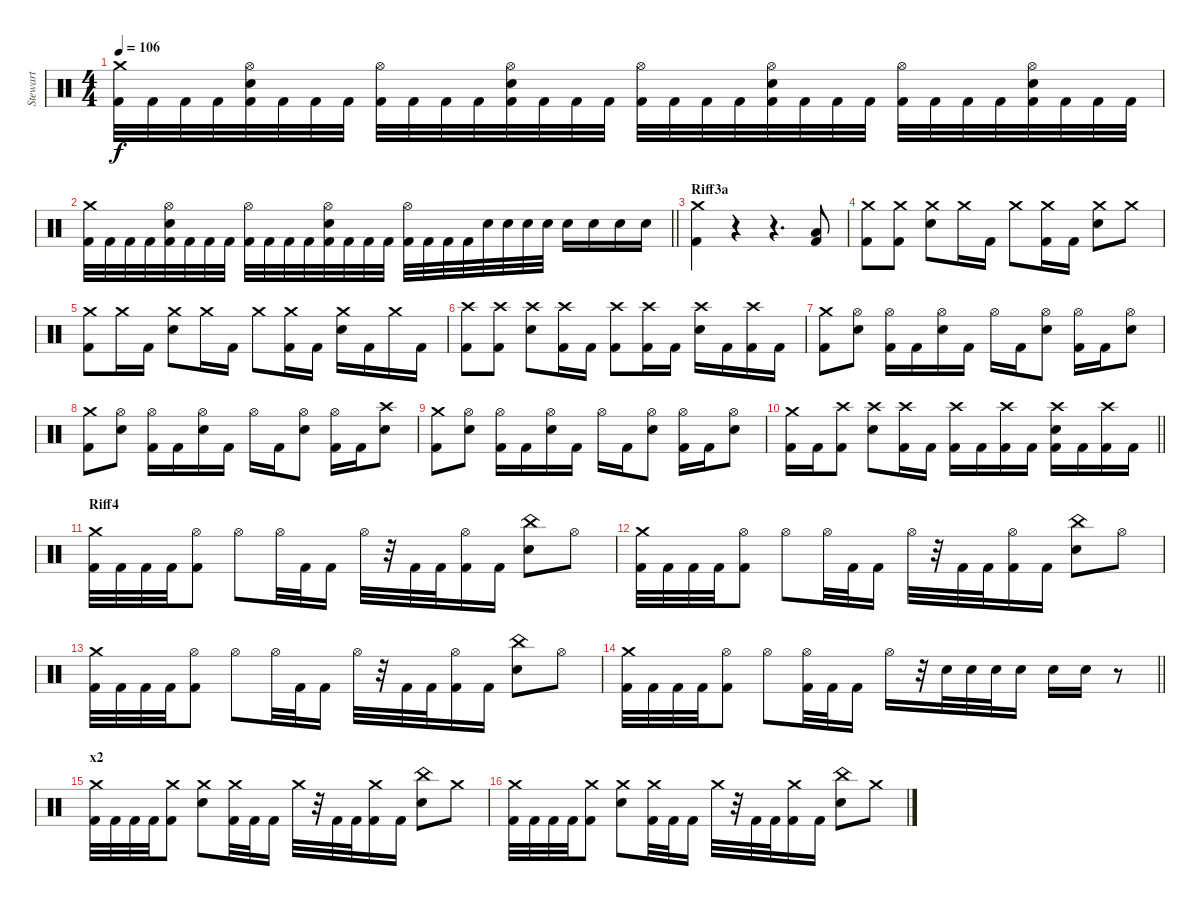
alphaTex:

\track ("Stewart" "Stewart") {instrument percussion}
\staff {score}
\articulation defaults
\ts (4 4)
\tempo 106
\clef neutral
\ks c
("Crash medium (hit)" "Kick (hit) 2").32{dy f} "Kick (hit) 2".32 "Kick (hit) 2".32 "Kick (hit) 2".32 ("Hi-Hat (open)" "Electric Snare (hit)" "Kick (hit) 2").32 "Kick (hit) 2".32 "Kick (hit) 2".32 "Kick (hit) 2".32 ("Hi-Hat (open)" "Kick (hit) 2").32 "Kick (hit) 2".32 "Kick (hit) 2".32 "Kick (hit) 2".32 ("Hi-Hat (open)" "Electric Snare (hit)" "Kick (hit) 2").32 "Kick (hit) 2".32 "Kick (hit) 2".32 "Kick (hit) 2".32 ("Hi-Hat (open)" "Kick (hit) 2").32 "Kick (hit) 2".32 "Kick (hit) 2".32 "Kick (hit) 2".32 ("Hi-Hat (open)" "Electric Snare (hit)" "Kick (hit) 2").32 "Kick (hit) 2".32 "Kick (hit) 2".32 "Kick (hit) 2".32 ("Hi-Hat (open)" "Kick (hit) 2").32 "Kick (hit) 2".32 "Kick (hit) 2".32 "Kick (hit) 2".32 ("Hi-Hat (open)" "Electric Snare (hit)" "Kick (hit) 2").32 "Kick (hit) 2".32 "Kick (hit) 2".32 "Kick (hit) 2".32 |
\barLineRight lightlight
("Crash medium (hit)" "Kick (hit) 2").32 "Kick (hit) 2".32 "Kick (hit) 2".32 "Kick (hit) 2".32 ("Hi-Hat (open)" "Electric Snare (hit)" "Kick (hit) 2").32 "Kick (hit) 2".32 "Kick (hit) 2".32 "Kick (hit) 2".32 ("Hi-Hat (open)" "Kick (hit) 2").32 "Kick (hit) 2".32 "Kick (hit) 2".32 "Kick (hit) 2".32 ("Hi-Hat (open)" "Electric Snare (hit)" "Kick (hit) 2").32 "Kick (hit) 2".32 "Kick (hit) 2".32 "Kick (hit) 2".32 ("Hi-Hat (open)" "Kick (hit) 2").32 "Kick (hit) 2".32 "Kick (hit) 2".32 "Kick (hit) 2".32 "Electric Snare (hit)".32 "Electric Snare (hit)".32 "Electric Snare (hit)".32 "Electric Snare (hit)".32 "Electric Snare (hit)".16 "Electric Snare (hit)".16 "Electric Snare (hit)".16 "Electric Snare (hit)".16 |
\section ("" "Riff3a")
("Crash medium (hit)" "Kick (hit) 2").4 r.4 r.4{d} ("Low Tom (hit)" "Kick (hit) 2").8 |
("Crash medium (hit)" "Kick (hit) 2").8 ("Crash medium (hit)" "Kick (hit) 2").8 ("Crash medium (hit)" "Electric Snare (hit)").8 "Crash medium (hit)".16 "Kick (hit) 2".16 "Crash medium (hit)".8 ("Crash medium (hit)" "Kick (hit) 2").16 "Kick (hit) 2".16 ("Crash medium (hit)" "Electric Snare (hit)").8 "Crash medium (hit)".8 |
("Crash medium (hit)" "Kick (hit) 2").8 "Crash medium (hit)".16 "Kick (hit) 2".16 ("Crash medium (hit)" "Electric Snare (hit)").8 "Crash medium (hit)".16 "Kick (hit) 2".16 "Crash medium (hit)".8 ("Crash medium (hit)" "Kick (hit) 2").16 "Kick (hit) 2".16 ("Crash medium (hit)" "Electric Snare (hit)").16 "Kick (hit) 2".16 "Crash medium (hit)".16 "Kick (hit) 2".16 |
("Crash high (hit)" "Kick (hit) 2").8 ("Crash high (hit)" "Kick (hit) 2").8 ("Crash high (hit)" "Electric Snare (hit)").8 ("Crash high (hit)" "Kick (hit) 2").16 "Kick (hit) 2".16 ("Crash high (hit)" "Kick (hit) 2").8 ("Crash high (hit)" "Kick (hit) 2").16 "Kick (hit) 2".16 ("Crash high (hit)" "Electric Snare (hit)").16 "Kick (hit) 2".16 ("Crash high (hit)" "Kick (hit) 2").16 "Kick (hit) 2".16 |
("Crash medium (hit)" "Kick (hit) 2").8 ("Hi-Hat (open)" "Electric Snare (hit)").8 ("Hi-Hat (open)" "Kick (hit) 2").16 "Kick (hit) 2".16 ("Hi-Hat (open)" "Electric Snare (hit)").16 "Kick (hit) 2".16 "Hi-Hat (open)".16 "Kick (hit) 2".16 ("Hi-Hat (open)" "Electric Snare (hit)").8 ("Hi-Hat (open)" "Kick (hit) 2").16 "Kick (hit) 2".16 ("Hi-Hat (open)" "Electric Snare (hit)").8 |
("Crash medium (hit)" "Kick (hit) 2").8 ("Hi-Hat (open)" "Electric Snare (hit)").8 ("Hi-Hat (open)" "Kick (hit) 2").16 "Kick (hit) 2".16 ("Hi-Hat (open)" "Electric Snare (hit)").16 "Kick (hit) 2".16 "Hi-Hat (open)".16 "Kick (hit) 2".16 ("Hi-Hat (open)" "Electric Snare (hit)").8 ("Hi-Hat (open)" "Kick (hit) 2").16 "Kick (hit) 2".16 ("Crash high (hit)" "Electric Snare (hit)").8 |
("Crash medium (hit)" "Kick (hit) 2").8 ("Hi-Hat (open)" "Electric Snare (hit)").8 ("Hi-Hat (open)" "Kick (hit) 2").16 "Kick (hit) 2".16 ("Hi-Hat (open)" "Electric Snare (hit)").16 "Kick (hit) 2".16 "Hi-Hat (open)".16 "Kick (hit) 2".16 ("Hi-Hat (open)" "Electric Snare (hit)").8 ("Hi-Hat (open)" "Kick (hit) 2").16 "Kick (hit) 2".16 ("Hi-Hat (open)" "Electric Snare (hit)").8 |
\barLineRight lightlight
("Crash medium (hit)" "Kick (hit) 2").16 "Kick (hit) 2".16 ("Crash high (hit)" "Kick (hit) 2").8 ("Crash high (hit)" "Electric Snare (hit)").8 ("Crash high (hit)" "Kick (hit) 2").16 "Kick (hit) 2".16 ("Crash high (hit)" "Kick (hit) 2").16 "Kick (hit) 2".16 ("Crash high (hit)" "Kick (hit) 2").16 "Kick (hit) 2".16 ("Crash high (hit)" "Electric Snare (hit)" "Kick (hit) 2").16 "Kick (hit) 2".16 ("Crash high (hit)" "Kick (hit) 2").16 "Kick (hit) 2".16 |
\section ("" "Riff4")
("Crash medium (hit)" "Kick (hit) 2").32 "Kick (hit) 2".32 "Kick (hit) 2".32 "Kick (hit) 2".32 ("Hi-Hat (open)" "Kick (hit) 2").8 "Hi-Hat (open)".8 "Hi-Hat (open)".32 "Kick (hit) 2".32 "Kick (hit) 2".16 "Hi-Hat (open)".32 r.32 "Kick (hit) 2".32 "Kick (hit) 2".32 ("Hi-Hat (open)" "Kick (hit) 2").16 "Kick (hit) 2".16 ("China (hit)" "Electric Snare (hit)").8 "Hi-Hat (open)".8 |
("Crash medium (hit)" "Kick (hit) 2").32 "Kick (hit) 2".32 "Kick (hit) 2".32 "Kick (hit) 2".32 ("Hi-Hat (open)" "Kick (hit) 2").8 "Hi-Hat (open)".8 "Hi-Hat (open)".32 "Kick (hit) 2".32 "Kick (hit) 2".16 "Hi-Hat (open)".32 r.32 "Kick (hit) 2".32 "Kick (hit) 2".32 ("Hi-Hat (open)" "Kick (hit) 2").16 "Kick (hit) 2".16 ("China (hit)" "Electric Snare (hit)").8 "Hi-Hat (open)".8 |
("Crash medium (hit)" "Kick (hit) 2").32 "Kick (hit) 2".32 "Kick (hit) 2".32 "Kick (hit) 2".32 ("Hi-Hat (open)" "Kick (hit) 2").8 "Hi-Hat (open)".8 "Hi-Hat (open)".32 "Kick (hit) 2".32 "Kick (hit) 2".16 "Hi-Hat (open)".32 r.32 "Kick (hit) 2".32 "Kick (hit) 2".32 ("Hi-Hat (open)" "Kick (hit) 2").16 "Kick (hit) 2".16 ("China (hit)" "Electric Snare (hit)").8 "Hi-Hat (open)".8 |
\barLineRight lightlight
("Crash medium (hit)" "Kick (hit) 2").32 "Kick (hit) 2".32 "Kick (hit) 2".32 "Kick (hit) 2".32 ("Hi-Hat (open)" "Kick (hit) 2").8 "Hi-Hat (open)".8 ("Hi-Hat (open)" "Kick (hit) 2").32 "Kick (hit) 2".32 "Kick (hit) 2".16 "Hi-Hat (open)".16 r.32 "Electric Snare (hit)".32 "Electric Snare (hit)".32 "Electric Snare (hit)".32 "Electric Snare (hit)".16 "Electric Snare (hit)".16 "Electric Snare (hit)".16 r.8 |
\section ("" "x2")
("Crash medium (hit)" "Kick (hit) 2").32 "Kick (hit) 2".32 "Kick (hit) 2".32 "Kick (hit) 2".32 ("Crash medium (hit)" "Kick (hit) 2").8 ("Crash medium (hit)" "Electric Snare (hit)").8 ("Crash medium (hit)" "Kick (hit) 2").32 "Kick (hit) 2".32 "Kick (hit) 2".16 "Crash medium (hit)".32 r.32 "Kick (hit) 2".32 "Kick (hit) 2".32 ("Crash medium (hit)" "Kick (hit) 2").16 "Kick (hit) 2".16 ("China (hit)" "Electric Snare (hit)").8 "Crash medium (hit)".8 |
("Crash medium (hit)" "Kick (hit) 2").32 "Kick (hit) 2".32 "Kick (hit) 2".32 "Kick (hit) 2".32 ("Crash medium (hit)" "Kick (hit) 2").8 ("Crash medium (hit)" "Electric Snare (hit)").8 ("Crash medium (hit)" "Kick (hit) 2").32 "Kick (hit) 2".32 "Kick (hit) 2".16 "Crash medium (hit)".32 r.32 "Kick (hit) 2".32 "Kick (hit) 2".32 ("Crash medium (hit)" "Kick (hit) 2").16 "Kick (hit) 2".16 ("China (hit)" "Electric Snare (hit)").8 "Crash medium (hit)".8
